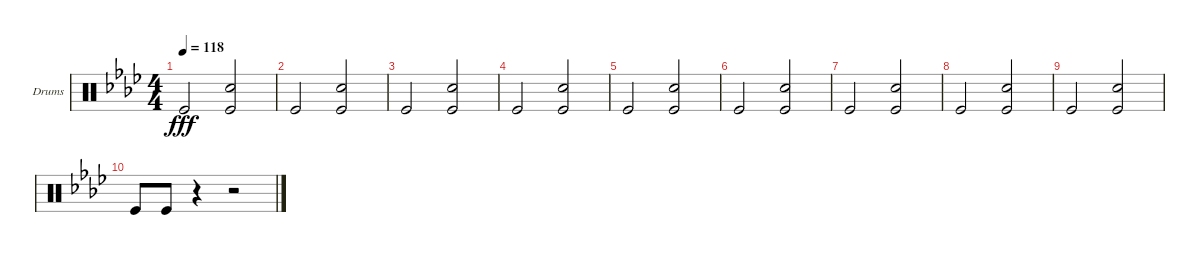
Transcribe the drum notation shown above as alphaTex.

\defaultSystemsLayout 4
\bracketExtendMode groupsimilarinstruments
\firstSystemTrackNameOrientation horizontal
\otherSystemsTrackNameOrientation horizontal
\track ("Nick Menza" "Drums") {instrument percussion}
\staff {score}
\articulation defaults
\ts (4 4)
\tempo 118
\clef neutral
\ks ab "Kick (hit)".2{dy fff}
("Kick (hit)" "Snare (hit) 2").2 |
"Kick (hit)".2 ("Kick (hit)" "Snare (hit) 2").2 |
"Kick (hit)".2 ("Kick (hit)" "Snare (hit) 2").2 |
"Kick (hit)".2 ("Kick (hit)" "Snare (hit) 2").2 |
"Kick (hit)".2 ("Kick (hit)" "Snare (hit) 2").2 |
"Kick (hit)".2 ("Kick (hit)" "Snare (hit) 2").2 |
"Kick (hit)".2 ("Kick (hit)" "Snare (hit) 2").2 |
"Kick (hit)".2 ("Kick (hit)" "Snare (hit) 2").2 |
"Kick (hit)".2 ("Kick (hit)" "Snare (hit) 2").2 |
"Kick (hit)".8 "Kick (hit)".8 r.4 r.2
